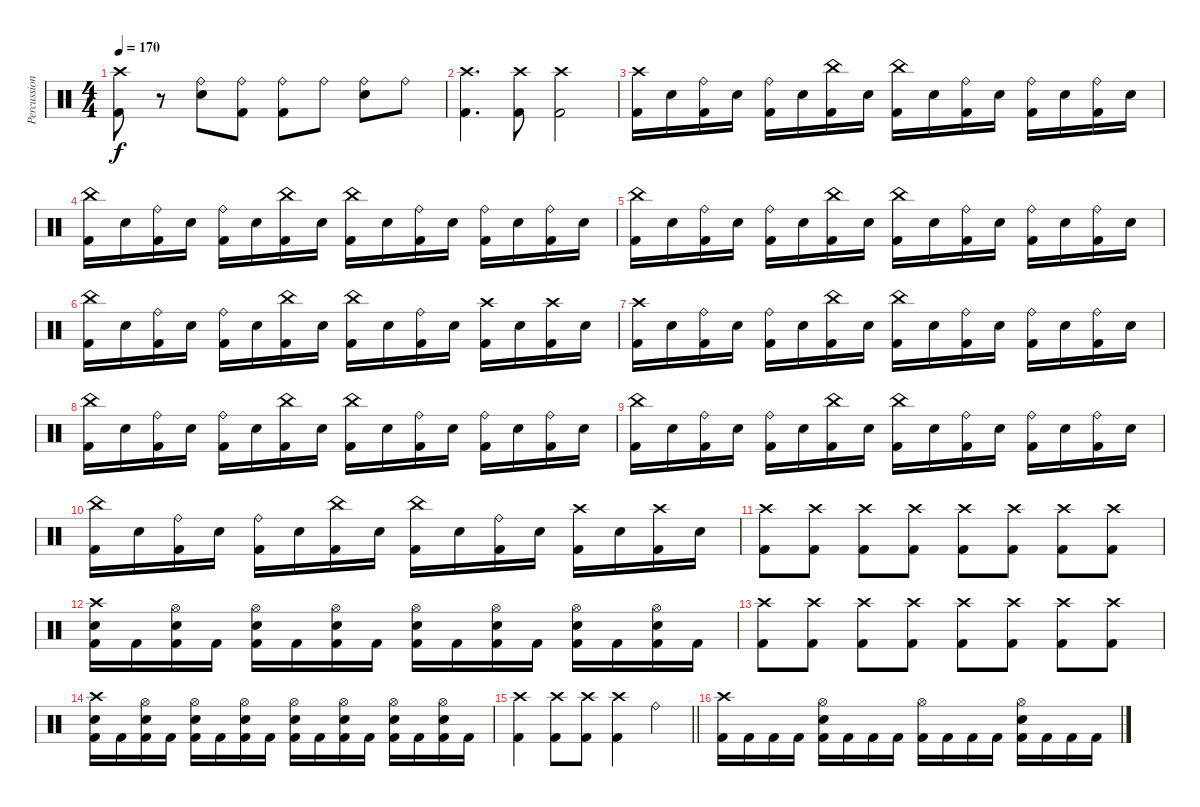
\track ("Percussion" "Percussion") {instrument percussion}
\staff {score}
\articulation defaults
\ts (4 4)
\tempo 170
\clef neutral
\ks c
("Crash high (hit)" "Kick (hit) 2").8{dy f} r.8 ("Ride (bell)" "Electric Snare (hit)").8 ("Ride (bell)" "Kick (hit) 2").8 ("Ride (bell)" "Kick (hit) 2").8 "Ride (bell)".8 ("Ride (bell)" "Electric Snare (hit)").8 "Ride (bell)".8 |
("Crash high (hit)" "Kick (hit) 2").4{d} ("Crash high (hit)" "Kick (hit) 2").8 ("Crash high (hit)" "Kick (hit) 2").2 |
("Crash high (hit)" "Kick (hit) 2").16 "Electric Snare (hit)".16 ("Ride (bell)" "Kick (hit) 2").16 "Electric Snare (hit)".16 ("Ride (bell)" "Kick (hit) 2").16 "Electric Snare (hit)".16 ("China (hit)" "Kick (hit) 2").16 "Electric Snare (hit)".16 ("China (hit)" "Kick (hit) 2").16 "Electric Snare (hit)".16 ("Ride (bell)" "Kick (hit) 2").16 "Electric Snare (hit)".16 ("Ride (bell)" "Kick (hit) 2").16 "Electric Snare (hit)".16 ("Ride (bell)" "Kick (hit) 2").16 "Electric Snare (hit)".16 |
("China (hit)" "Kick (hit) 2").16 "Electric Snare (hit)".16 ("Ride (bell)" "Kick (hit) 2").16 "Electric Snare (hit)".16 ("Ride (bell)" "Kick (hit) 2").16 "Electric Snare (hit)".16 ("China (hit)" "Kick (hit) 2").16 "Electric Snare (hit)".16 ("China (hit)" "Kick (hit) 2").16 "Electric Snare (hit)".16 ("Ride (bell)" "Kick (hit) 2").16 "Electric Snare (hit)".16 ("Ride (bell)" "Kick (hit) 2").16 "Electric Snare (hit)".16 ("Ride (bell)" "Kick (hit) 2").16 "Electric Snare (hit)".16 |
("China (hit)" "Kick (hit) 2").16 "Electric Snare (hit)".16 ("Ride (bell)" "Kick (hit) 2").16 "Electric Snare (hit)".16 ("Ride (bell)" "Kick (hit) 2").16 "Electric Snare (hit)".16 ("China (hit)" "Kick (hit) 2").16 "Electric Snare (hit)".16 ("China (hit)" "Kick (hit) 2").16 "Electric Snare (hit)".16 ("Ride (bell)" "Kick (hit) 2").16 "Electric Snare (hit)".16 ("Ride (bell)" "Kick (hit) 2").16 "Electric Snare (hit)".16 ("Ride (bell)" "Kick (hit) 2").16 "Electric Snare (hit)".16 |
("China (hit)" "Kick (hit) 2").16 "Electric Snare (hit)".16 ("Ride (bell)" "Kick (hit) 2").16 "Electric Snare (hit)".16 ("Ride (bell)" "Kick (hit) 2").16 "Electric Snare (hit)".16 ("China (hit)" "Kick (hit) 2").16 "Electric Snare (hit)".16 ("China (hit)" "Kick (hit) 2").16 "Electric Snare (hit)".16 ("Ride (bell)" "Kick (hit) 2").16 "Electric Snare (hit)".16 ("Crash high (hit)" "Kick (hit) 2").16 "Electric Snare (hit)".16 ("Crash high (hit)" "Kick (hit) 2").16 "Electric Snare (hit)".16 |
("Crash high (hit)" "Kick (hit) 2").16 "Electric Snare (hit)".16 ("Ride (bell)" "Kick (hit) 2").16 "Electric Snare (hit)".16 ("Ride (bell)" "Kick (hit) 2").16 "Electric Snare (hit)".16 ("China (hit)" "Kick (hit) 2").16 "Electric Snare (hit)".16 ("China (hit)" "Kick (hit) 2").16 "Electric Snare (hit)".16 ("Ride (bell)" "Kick (hit) 2").16 "Electric Snare (hit)".16 ("Ride (bell)" "Kick (hit) 2").16 "Electric Snare (hit)".16 ("Ride (bell)" "Kick (hit) 2").16 "Electric Snare (hit)".16 |
("China (hit)" "Kick (hit) 2").16 "Electric Snare (hit)".16 ("Ride (bell)" "Kick (hit) 2").16 "Electric Snare (hit)".16 ("Ride (bell)" "Kick (hit) 2").16 "Electric Snare (hit)".16 ("China (hit)" "Kick (hit) 2").16 "Electric Snare (hit)".16 ("China (hit)" "Kick (hit) 2").16 "Electric Snare (hit)".16 ("Ride (bell)" "Kick (hit) 2").16 "Electric Snare (hit)".16 ("Ride (bell)" "Kick (hit) 2").16 "Electric Snare (hit)".16 ("Ride (bell)" "Kick (hit) 2").16 "Electric Snare (hit)".16 |
("China (hit)" "Kick (hit) 2").16 "Electric Snare (hit)".16 ("Ride (bell)" "Kick (hit) 2").16 "Electric Snare (hit)".16 ("Ride (bell)" "Kick (hit) 2").16 "Electric Snare (hit)".16 ("China (hit)" "Kick (hit) 2").16 "Electric Snare (hit)".16 ("China (hit)" "Kick (hit) 2").16 "Electric Snare (hit)".16 ("Ride (bell)" "Kick (hit) 2").16 "Electric Snare (hit)".16 ("Ride (bell)" "Kick (hit) 2").16 "Electric Snare (hit)".16 ("Ride (bell)" "Kick (hit) 2").16 "Electric Snare (hit)".16 |
("China (hit)" "Kick (hit) 2").16 "Electric Snare (hit)".16 ("Ride (bell)" "Kick (hit) 2").16 "Electric Snare (hit)".16 ("Ride (bell)" "Kick (hit) 2").16 "Electric Snare (hit)".16 ("China (hit)" "Kick (hit) 2").16 "Electric Snare (hit)".16 ("China (hit)" "Kick (hit) 2").16 "Electric Snare (hit)".16 ("Ride (bell)" "Kick (hit) 2").16 "Electric Snare (hit)".16 ("Crash high (hit)" "Kick (hit) 2").16 "Electric Snare (hit)".16 ("Crash high (hit)" "Kick (hit) 2").16 "Electric Snare (hit)".16 |
("Crash high (hit)" "Kick (hit) 2").8 ("Crash high (hit)" "Kick (hit) 2").8 ("Crash high (hit)" "Kick (hit) 2").8 ("Crash high (hit)" "Kick (hit) 2").8 ("Crash high (hit)" "Kick (hit) 2").8 ("Crash high (hit)" "Kick (hit) 2").8 ("Crash high (hit)" "Kick (hit) 2").8 ("Crash high (hit)" "Kick (hit) 2").8 |
("Crash high (hit)" "Electric Snare (hit)" "Kick (hit) 2").16 "Kick (hit) 2".16 ("Hi-Hat (open)" "Electric Snare (hit)" "Kick (hit) 2").16 "Kick (hit) 2".16 ("Hi-Hat (open)" "Electric Snare (hit)" "Kick (hit) 2").16 "Kick (hit) 2".16 ("Hi-Hat (open)" "Electric Snare (hit)" "Kick (hit) 2").16 "Kick (hit) 2".16 ("Hi-Hat (open)" "Electric Snare (hit)" "Kick (hit) 2").16 "Kick (hit) 2".16 ("Hi-Hat (open)" "Electric Snare (hit)" "Kick (hit) 2").16 "Kick (hit) 2".16 ("Hi-Hat (open)" "Electric Snare (hit)" "Kick (hit) 2").16 "Kick (hit) 2".16 ("Hi-Hat (open)" "Electric Snare (hit)" "Kick (hit) 2").16 "Kick (hit) 2".16 |
("Crash high (hit)" "Kick (hit) 2").8 ("Crash high (hit)" "Kick (hit) 2").8 ("Crash high (hit)" "Kick (hit) 2").8 ("Crash high (hit)" "Kick (hit) 2").8 ("Crash high (hit)" "Kick (hit) 2").8 ("Crash high (hit)" "Kick (hit) 2").8 ("Crash high (hit)" "Kick (hit) 2").8 ("Crash high (hit)" "Kick (hit) 2").8 |
("Crash high (hit)" "Electric Snare (hit)" "Kick (hit) 2").16 "Kick (hit) 2".16 ("Hi-Hat (open)" "Electric Snare (hit)" "Kick (hit) 2").16 "Kick (hit) 2".16 ("Hi-Hat (open)" "Electric Snare (hit)" "Kick (hit) 2").16 "Kick (hit) 2".16 ("Hi-Hat (open)" "Electric Snare (hit)" "Kick (hit) 2").16 "Kick (hit) 2".16 ("Hi-Hat (open)" "Electric Snare (hit)" "Kick (hit) 2").16 "Kick (hit) 2".16 ("Hi-Hat (open)" "Electric Snare (hit)" "Kick (hit) 2").16 "Kick (hit) 2".16 ("Hi-Hat (open)" "Electric Snare (hit)" "Kick (hit) 2").16 "Kick (hit) 2".16 ("Hi-Hat (open)" "Electric Snare (hit)" "Kick (hit) 2").16 "Kick (hit) 2".16 |
\barLineRight lightlight
("Crash high (hit)" "Kick (hit) 2").4 ("Crash high (hit)" "Kick (hit) 2").8 ("Crash high (hit)" "Kick (hit) 2").8 ("Crash high (hit)" "Kick (hit) 2").4 "Ride (bell)".4 |
("Crash high (hit)" "Kick (hit) 2").16 "Kick (hit) 2".16 "Kick (hit) 2".16 "Kick (hit) 2".16 ("Hi-Hat (open)" "Electric Snare (hit)" "Kick (hit) 2").16 "Kick (hit) 2".16 "Kick (hit) 2".16 "Kick (hit) 2".16 ("Hi-Hat (open)" "Kick (hit) 2").16 "Kick (hit) 2".16 "Kick (hit) 2".16 "Kick (hit) 2".16 ("Hi-Hat (open)" "Electric Snare (hit)" "Kick (hit) 2").16 "Kick (hit) 2".16 "Kick (hit) 2".16 "Kick (hit) 2".16
